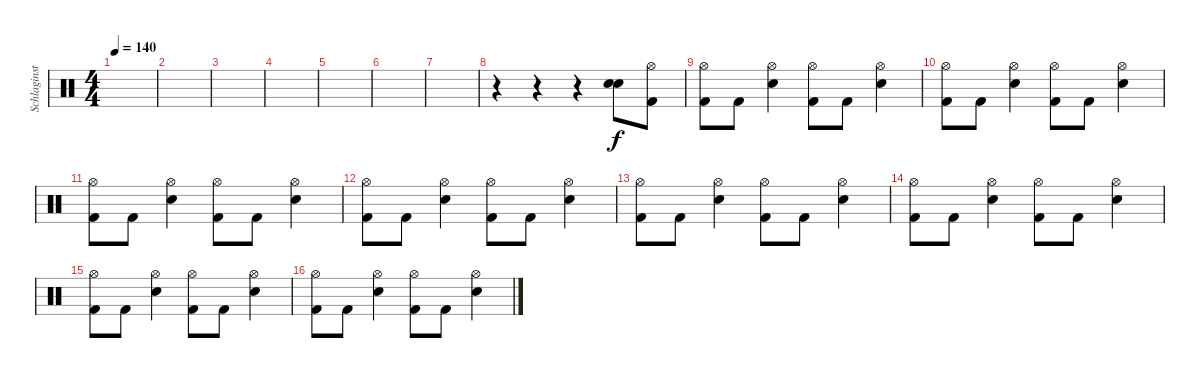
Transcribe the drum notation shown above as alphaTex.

\track ("Schlaginstrumente - Auswahl" "Schlaginst") {instrument percussion}
\staff {score}
\articulation defaults
\ts (4 4)
\tempo 140
\clef neutral
\ks c
|
|
|
|
|
|
|
r.4 r.4 r.4 ("Snare (hit) 2" "Snare (hit) 2").8{bu 480} ("Hi-Hat (open)" "Kick (hit) 2").8 |
("Hi-Hat (open)" "Kick (hit) 2").8 "Kick (hit) 2".8 ("Hi-Hat (open)" "Snare (hit) 2").4 ("Hi-Hat (open)" "Kick (hit) 2").8 "Kick (hit) 2".8 ("Hi-Hat (open)" "Snare (hit) 2").4 |
("Hi-Hat (open)" "Kick (hit) 2").8 "Kick (hit) 2".8 ("Hi-Hat (open)" "Snare (hit) 2").4 ("Hi-Hat (open)" "Kick (hit) 2").8 "Kick (hit) 2".8 ("Hi-Hat (open)" "Snare (hit) 2").4 |
("Hi-Hat (open)" "Kick (hit) 2").8 "Kick (hit) 2".8 ("Hi-Hat (open)" "Snare (hit) 2").4 ("Hi-Hat (open)" "Kick (hit) 2").8 "Kick (hit) 2".8 ("Hi-Hat (open)" "Snare (hit) 2").4 |
("Hi-Hat (open)" "Kick (hit) 2").8 "Kick (hit) 2".8 ("Hi-Hat (open)" "Snare (hit) 2").4 ("Hi-Hat (open)" "Kick (hit) 2").8 "Kick (hit) 2".8 ("Hi-Hat (open)" "Snare (hit) 2").4 |
("Hi-Hat (open)" "Kick (hit) 2").8 "Kick (hit) 2".8 ("Hi-Hat (open)" "Snare (hit) 2").4 ("Hi-Hat (open)" "Kick (hit) 2").8 "Kick (hit) 2".8 ("Hi-Hat (open)" "Snare (hit) 2").4 |
("Hi-Hat (open)" "Kick (hit) 2").8 "Kick (hit) 2".8 ("Hi-Hat (open)" "Snare (hit) 2").4 ("Hi-Hat (open)" "Kick (hit) 2").8 "Kick (hit) 2".8 ("Hi-Hat (open)" "Snare (hit) 2").4 |
("Hi-Hat (open)" "Kick (hit) 2").8 "Kick (hit) 2".8 ("Hi-Hat (open)" "Snare (hit) 2").4 ("Hi-Hat (open)" "Kick (hit) 2").8 "Kick (hit) 2".8 ("Hi-Hat (open)" "Snare (hit) 2").4 |
("Hi-Hat (open)" "Kick (hit) 2").8 "Kick (hit) 2".8 ("Hi-Hat (open)" "Snare (hit) 2").4 ("Hi-Hat (open)" "Kick (hit) 2").8 "Kick (hit) 2".8 ("Hi-Hat (open)" "Snare (hit) 2").4
